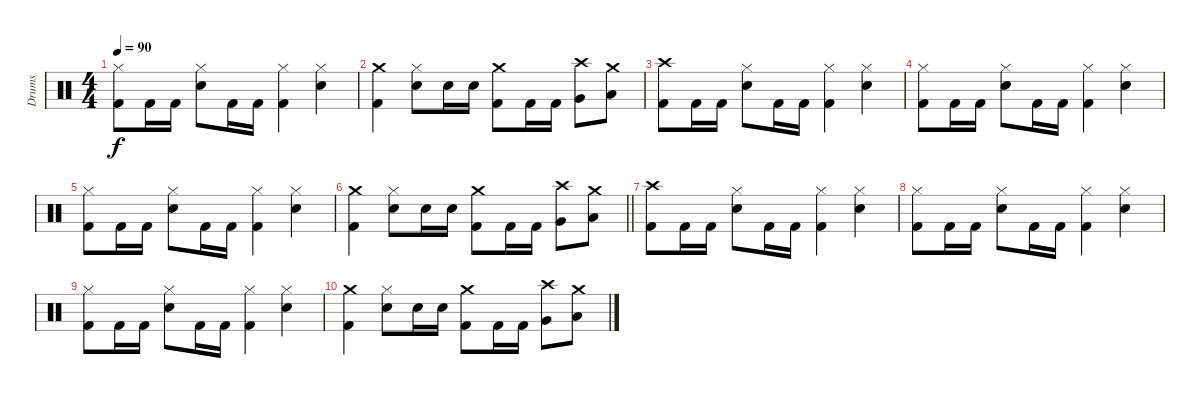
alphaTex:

\track ("Drums" "Drums") {instrument percussion}
\staff {score}
\articulation defaults
\ts (4 4)
\tempo 90
\clef neutral
\ks c
("Hi-Hat (closed)" "Kick (hit) 2").8{dy f} "Kick (hit) 2".16 "Kick (hit) 2".16 ("Hi-Hat (closed)" "Snare (hit) 2").8 "Kick (hit) 2".16 "Kick (hit) 2".16 ("Hi-Hat (closed)" "Kick (hit) 2").4 ("Hi-Hat (closed)" "Snare (hit) 2").4 |
("Crash medium (hit)" "Kick (hit) 2").4 ("Hi-Hat (closed)" "Snare (hit) 2").8 "Snare (hit) 2".16 "Snare (hit) 2".16 ("Crash medium (hit)" "Kick (hit) 2").8 "Kick (hit) 2".16 "Kick (hit) 2".16 ("Crash high (hit)" "Very Low Tom (hit)").8 ("Crash medium (hit)" "Low Floor Tom (hit)").8 |
("Crash high (hit)" "Kick (hit) 2").8 "Kick (hit) 2".16 "Kick (hit) 2".16 ("Hi-Hat (closed)" "Snare (hit) 2").8 "Kick (hit) 2".16 "Kick (hit) 2".16 ("Hi-Hat (closed)" "Kick (hit) 2").4 ("Hi-Hat (closed)" "Snare (hit) 2").4 |
("Hi-Hat (closed)" "Kick (hit) 2").8 "Kick (hit) 2".16 "Kick (hit) 2".16 ("Hi-Hat (closed)" "Snare (hit) 2").8 "Kick (hit) 2".16 "Kick (hit) 2".16 ("Hi-Hat (closed)" "Kick (hit) 2").4 ("Hi-Hat (closed)" "Snare (hit) 2").4 |
("Hi-Hat (closed)" "Kick (hit) 2").8 "Kick (hit) 2".16 "Kick (hit) 2".16 ("Hi-Hat (closed)" "Snare (hit) 2").8 "Kick (hit) 2".16 "Kick (hit) 2".16 ("Hi-Hat (closed)" "Kick (hit) 2").4 ("Hi-Hat (closed)" "Snare (hit) 2").4 |
\barLineRight lightlight
("Crash medium (hit)" "Kick (hit) 2").4 ("Hi-Hat (closed)" "Snare (hit) 2").8 "Snare (hit) 2".16 "Snare (hit) 2".16 ("Crash medium (hit)" "Kick (hit) 2").8 "Kick (hit) 2".16 "Kick (hit) 2".16 ("Crash high (hit)" "Very Low Tom (hit)").8 ("Crash medium (hit)" "Low Floor Tom (hit)").8 |
("Crash high (hit)" "Kick (hit) 2").8 "Kick (hit) 2".16 "Kick (hit) 2".16 ("Hi-Hat (closed)" "Snare (hit) 2").8 "Kick (hit) 2".16 "Kick (hit) 2".16 ("Hi-Hat (closed)" "Kick (hit) 2").4 ("Hi-Hat (closed)" "Snare (hit) 2").4 |
("Hi-Hat (closed)" "Kick (hit) 2").8 "Kick (hit) 2".16 "Kick (hit) 2".16 ("Hi-Hat (closed)" "Snare (hit) 2").8 "Kick (hit) 2".16 "Kick (hit) 2".16 ("Hi-Hat (closed)" "Kick (hit) 2").4 ("Hi-Hat (closed)" "Snare (hit) 2").4 |
("Hi-Hat (closed)" "Kick (hit) 2").8 "Kick (hit) 2".16 "Kick (hit) 2".16 ("Hi-Hat (closed)" "Snare (hit) 2").8 "Kick (hit) 2".16 "Kick (hit) 2".16 ("Hi-Hat (closed)" "Kick (hit) 2").4 ("Hi-Hat (closed)" "Snare (hit) 2").4 |
("Crash medium (hit)" "Kick (hit) 2").4 ("Hi-Hat (closed)" "Snare (hit) 2").8 "Snare (hit) 2".16 "Snare (hit) 2".16 ("Crash medium (hit)" "Kick (hit) 2").8 "Kick (hit) 2".16 "Kick (hit) 2".16 ("Crash high (hit)" "Very Low Tom (hit)").8 ("Crash medium (hit)" "Low Floor Tom (hit)").8
